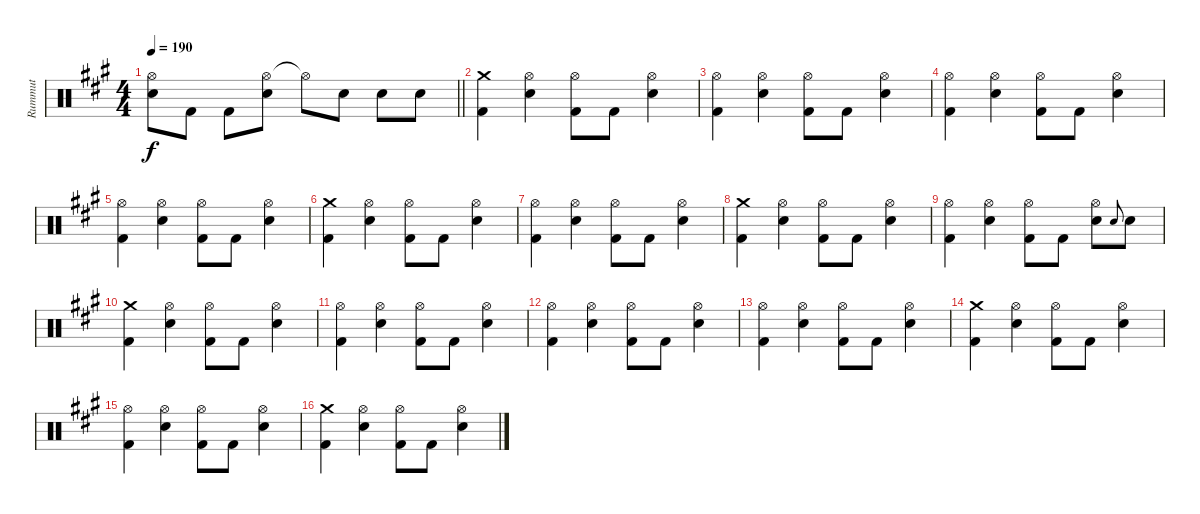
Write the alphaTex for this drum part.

\track ("Rummut" "Rummut") {instrument percussion}
\staff {score}
\articulation defaults
\ts (4 4)
\tempo 190
\clef neutral
\barLineRight lightlight
\ks a
("Hi-Hat (open)" "Snare (hit) 2").8{dy f} "Kick (hit) 2".8 "Kick (hit) 2".8 ("Hi-Hat (open)" "Snare (hit) 2").8 "Hi-Hat (open)"{t}.8 "Snare (hit) 2".8 "Snare (hit) 2".8 "Snare (hit) 2".8 |
("Crash medium (hit)" "Kick (hit) 2").4 ("Hi-Hat (open)" "Snare (hit) 2").4 ("Hi-Hat (open)" "Kick (hit) 2").8 "Kick (hit) 2".8 ("Hi-Hat (open)" "Snare (hit) 2").4 |
("Hi-Hat (open)" "Kick (hit) 2").4 ("Hi-Hat (open)" "Snare (hit) 2").4 ("Hi-Hat (open)" "Kick (hit) 2").8 "Kick (hit) 2".8 ("Hi-Hat (open)" "Snare (hit) 2").4 |
("Hi-Hat (open)" "Kick (hit) 2").4 ("Hi-Hat (open)" "Snare (hit) 2").4 ("Hi-Hat (open)" "Kick (hit) 2").8 "Kick (hit) 2".8 ("Hi-Hat (open)" "Snare (hit) 2").4 |
("Hi-Hat (open)" "Kick (hit) 2").4 ("Hi-Hat (open)" "Snare (hit) 2").4 ("Hi-Hat (open)" "Kick (hit) 2").8 "Kick (hit) 2".8 ("Hi-Hat (open)" "Snare (hit) 2").4 |
("Crash medium (hit)" "Kick (hit) 2").4 ("Hi-Hat (open)" "Snare (hit) 2").4 ("Hi-Hat (open)" "Kick (hit) 2").8 "Kick (hit) 2".8 ("Hi-Hat (open)" "Snare (hit) 2").4 |
("Hi-Hat (open)" "Kick (hit) 2").4 ("Hi-Hat (open)" "Snare (hit) 2").4 ("Hi-Hat (open)" "Kick (hit) 2").8 "Kick (hit) 2".8 ("Hi-Hat (open)" "Snare (hit) 2").4 |
("Crash medium (hit)" "Kick (hit) 2").4 ("Hi-Hat (open)" "Snare (hit) 2").4 ("Hi-Hat (open)" "Kick (hit) 2").8 "Kick (hit) 2".8 ("Hi-Hat (open)" "Snare (hit) 2").4 |
("Hi-Hat (open)" "Kick (hit) 2").4 ("Hi-Hat (open)" "Snare (hit) 2").4 ("Hi-Hat (open)" "Kick (hit) 2").8 "Kick (hit) 2".8 ("Hi-Hat (open)" "Snare (hit) 2").8 "Snare (hit) 2".8{gr onbeat} "Snare (hit) 2".8 |
("Crash medium (hit)" "Kick (hit) 2").4 ("Hi-Hat (open)" "Snare (hit) 2").4 ("Hi-Hat (open)" "Kick (hit) 2").8 "Kick (hit) 2".8 ("Hi-Hat (open)" "Snare (hit) 2").4 |
("Hi-Hat (open)" "Kick (hit) 2").4 ("Hi-Hat (open)" "Snare (hit) 2").4 ("Hi-Hat (open)" "Kick (hit) 2").8 "Kick (hit) 2".8 ("Hi-Hat (open)" "Snare (hit) 2").4 |
("Hi-Hat (open)" "Kick (hit) 2").4 ("Hi-Hat (open)" "Snare (hit) 2").4 ("Hi-Hat (open)" "Kick (hit) 2").8 "Kick (hit) 2".8 ("Hi-Hat (open)" "Snare (hit) 2").4 |
("Hi-Hat (open)" "Kick (hit) 2").4 ("Hi-Hat (open)" "Snare (hit) 2").4 ("Hi-Hat (open)" "Kick (hit) 2").8 "Kick (hit) 2".8 ("Hi-Hat (open)" "Snare (hit) 2").4 |
("Crash medium (hit)" "Kick (hit) 2").4 ("Hi-Hat (open)" "Snare (hit) 2").4 ("Hi-Hat (open)" "Kick (hit) 2").8 "Kick (hit) 2".8 ("Hi-Hat (open)" "Snare (hit) 2").4 |
("Hi-Hat (open)" "Kick (hit) 2").4 ("Hi-Hat (open)" "Snare (hit) 2").4 ("Hi-Hat (open)" "Kick (hit) 2").8 "Kick (hit) 2".8 ("Hi-Hat (open)" "Snare (hit) 2").4 |
("Crash medium (hit)" "Kick (hit) 2").4 ("Hi-Hat (open)" "Snare (hit) 2").4 ("Hi-Hat (open)" "Kick (hit) 2").8 "Kick (hit) 2".8 ("Hi-Hat (open)" "Snare (hit) 2").4
